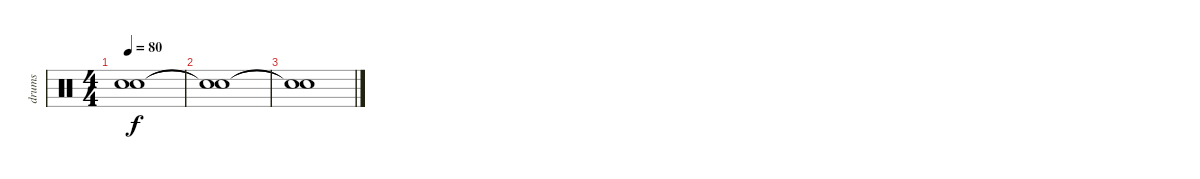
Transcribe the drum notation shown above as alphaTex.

\track ("drums" "drums") {instrument percussion}
\staff
\articulation defaults
\ts (4 4)
\tempo 80
\clef neutral
\ks c
("Snare (hit)"{t} "Snare (hit)"{t}).1{dy f} |
("Snare (hit)"{t} "Snare (hit)"{t}).1 |
("Snare (hit)"{t} "Snare (hit)"{t}).1
